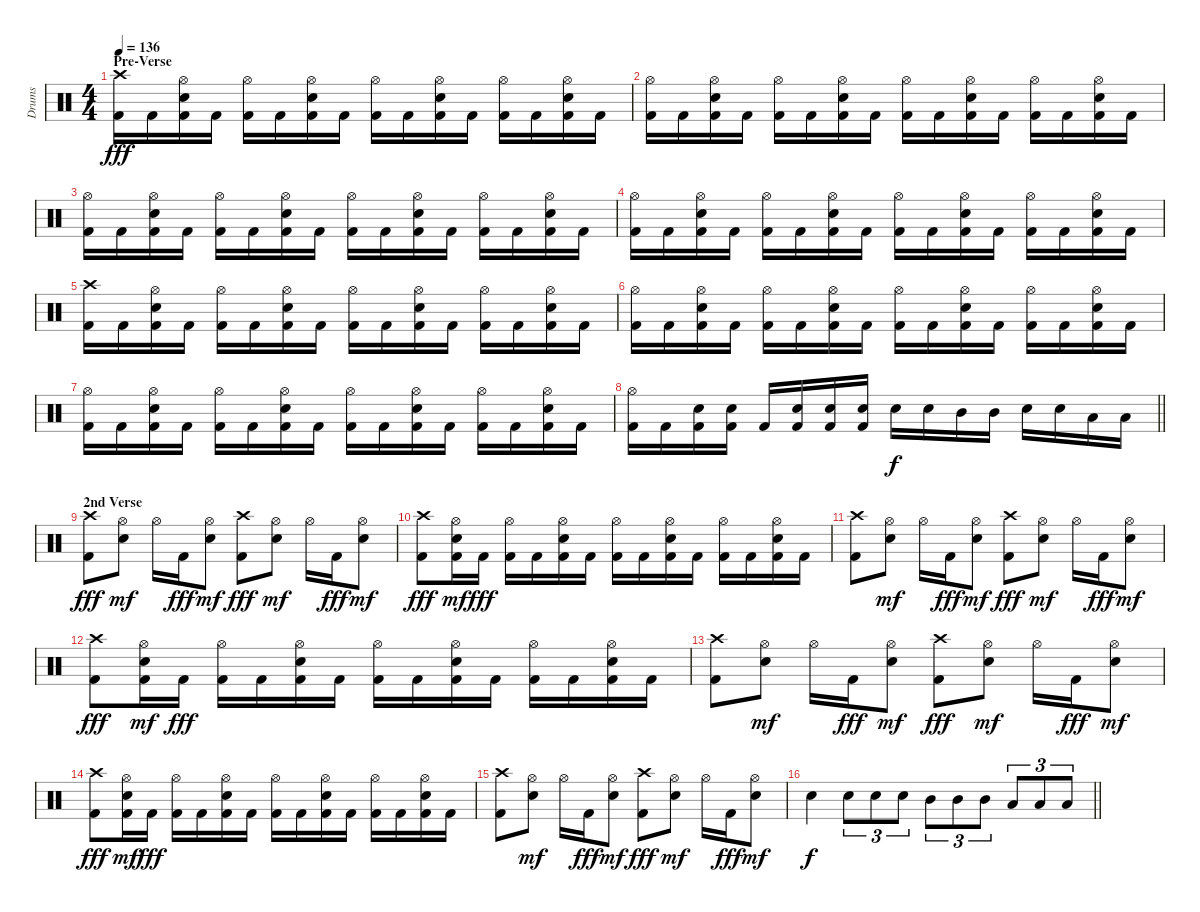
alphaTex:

\track ("Drums" "Drums") {instrument percussion}
\staff {score}
\articulation defaults
\ts (4 4)
\section ("" "Pre-Verse")
\tempo 136
\clef neutral
\ks c
("Crash high (hit)" "Kick (hit) 2").16{dy fff} "Kick (hit) 2".16 ("Hi-Hat (open)" "Electric Snare (hit)" "Kick (hit) 2").16 "Kick (hit) 2".16 ("Hi-Hat (open)" "Kick (hit) 2").16 "Kick (hit) 2".16 ("Hi-Hat (open)" "Electric Snare (hit)" "Kick (hit) 2").16 "Kick (hit) 2".16 ("Hi-Hat (open)" "Kick (hit) 2").16 "Kick (hit) 2".16 ("Hi-Hat (open)" "Electric Snare (hit)" "Kick (hit) 2").16 "Kick (hit) 2".16 ("Hi-Hat (open)" "Kick (hit) 2").16 "Kick (hit) 2".16 ("Hi-Hat (open)" "Electric Snare (hit)" "Kick (hit) 2").16 "Kick (hit) 2".16 |
("Hi-Hat (open)" "Kick (hit) 2").16 "Kick (hit) 2".16 ("Hi-Hat (open)" "Electric Snare (hit)" "Kick (hit) 2").16 "Kick (hit) 2".16 ("Hi-Hat (open)" "Kick (hit) 2").16 "Kick (hit) 2".16 ("Hi-Hat (open)" "Electric Snare (hit)" "Kick (hit) 2").16 "Kick (hit) 2".16 ("Hi-Hat (open)" "Kick (hit) 2").16 "Kick (hit) 2".16 ("Hi-Hat (open)" "Electric Snare (hit)" "Kick (hit) 2").16 "Kick (hit) 2".16 ("Hi-Hat (open)" "Kick (hit) 2").16 "Kick (hit) 2".16 ("Hi-Hat (open)" "Electric Snare (hit)" "Kick (hit) 2").16 "Kick (hit) 2".16 |
("Hi-Hat (open)" "Kick (hit) 2").16 "Kick (hit) 2".16 ("Hi-Hat (open)" "Electric Snare (hit)" "Kick (hit) 2").16 "Kick (hit) 2".16 ("Hi-Hat (open)" "Kick (hit) 2").16 "Kick (hit) 2".16 ("Hi-Hat (open)" "Electric Snare (hit)" "Kick (hit) 2").16 "Kick (hit) 2".16 ("Hi-Hat (open)" "Kick (hit) 2").16 "Kick (hit) 2".16 ("Hi-Hat (open)" "Electric Snare (hit)" "Kick (hit) 2").16 "Kick (hit) 2".16 ("Hi-Hat (open)" "Kick (hit) 2").16 "Kick (hit) 2".16 ("Hi-Hat (open)" "Electric Snare (hit)" "Kick (hit) 2").16 "Kick (hit) 2".16 |
("Hi-Hat (open)" "Kick (hit) 2").16 "Kick (hit) 2".16 ("Hi-Hat (open)" "Electric Snare (hit)" "Kick (hit) 2").16 "Kick (hit) 2".16 ("Hi-Hat (open)" "Kick (hit) 2").16 "Kick (hit) 2".16 ("Hi-Hat (open)" "Electric Snare (hit)" "Kick (hit) 2").16 "Kick (hit) 2".16 ("Hi-Hat (open)" "Kick (hit) 2").16 "Kick (hit) 2".16 ("Hi-Hat (open)" "Electric Snare (hit)" "Kick (hit) 2").16 "Kick (hit) 2".16 ("Hi-Hat (open)" "Kick (hit) 2").16 "Kick (hit) 2".16 ("Hi-Hat (open)" "Electric Snare (hit)" "Kick (hit) 2").16 "Kick (hit) 2".16 |
("Crash high (hit)" "Kick (hit) 2").16 "Kick (hit) 2".16 ("Hi-Hat (open)" "Electric Snare (hit)" "Kick (hit) 2").16 "Kick (hit) 2".16 ("Hi-Hat (open)" "Kick (hit) 2").16 "Kick (hit) 2".16 ("Hi-Hat (open)" "Electric Snare (hit)" "Kick (hit) 2").16 "Kick (hit) 2".16 ("Hi-Hat (open)" "Kick (hit) 2").16 "Kick (hit) 2".16 ("Hi-Hat (open)" "Electric Snare (hit)" "Kick (hit) 2").16 "Kick (hit) 2".16 ("Hi-Hat (open)" "Kick (hit) 2").16 "Kick (hit) 2".16 ("Hi-Hat (open)" "Electric Snare (hit)" "Kick (hit) 2").16 "Kick (hit) 2".16 |
("Hi-Hat (open)" "Kick (hit) 2").16 "Kick (hit) 2".16 ("Hi-Hat (open)" "Electric Snare (hit)" "Kick (hit) 2").16 "Kick (hit) 2".16 ("Hi-Hat (open)" "Kick (hit) 2").16 "Kick (hit) 2".16 ("Hi-Hat (open)" "Electric Snare (hit)" "Kick (hit) 2").16 "Kick (hit) 2".16 ("Hi-Hat (open)" "Kick (hit) 2").16 "Kick (hit) 2".16 ("Hi-Hat (open)" "Electric Snare (hit)" "Kick (hit) 2").16 "Kick (hit) 2".16 ("Hi-Hat (open)" "Kick (hit) 2").16 "Kick (hit) 2".16 ("Hi-Hat (open)" "Electric Snare (hit)" "Kick (hit) 2").16 "Kick (hit) 2".16 |
("Hi-Hat (open)" "Kick (hit) 2").16 "Kick (hit) 2".16 ("Hi-Hat (open)" "Electric Snare (hit)" "Kick (hit) 2").16 "Kick (hit) 2".16 ("Hi-Hat (open)" "Kick (hit) 2").16 "Kick (hit) 2".16 ("Hi-Hat (open)" "Electric Snare (hit)" "Kick (hit) 2").16 "Kick (hit) 2".16 ("Hi-Hat (open)" "Kick (hit) 2").16 "Kick (hit) 2".16 ("Hi-Hat (open)" "Electric Snare (hit)" "Kick (hit) 2").16 "Kick (hit) 2".16 ("Hi-Hat (open)" "Kick (hit) 2").16 "Kick (hit) 2".16 ("Hi-Hat (open)" "Electric Snare (hit)" "Kick (hit) 2").16 "Kick (hit) 2".16 |
\barLineRight lightlight
("Hi-Hat (open)" "Kick (hit) 2").16 "Kick (hit) 2".16 ("Electric Snare (hit)" "Kick (hit) 2").16 ("Electric Snare (hit)" "Kick (hit) 2").16 "Kick (hit) 2".16 ("Electric Snare (hit)" "Kick (hit) 2").16 ("Electric Snare (hit)" "Kick (hit) 2").16 ("Electric Snare (hit)" "Kick (hit) 2").16 "Electric Snare (hit)".16{dy f} "Electric Snare (hit)".16 "Mid Tom (hit)".16 "Mid Tom (hit)".16 "Electric Snare (hit)".16 "Electric Snare (hit)".16 "Low Tom (hit)".16 "Low Tom (hit)".16 |
\section ("" "2nd Verse")
("Crash high (hit)" "Kick (hit) 2").8{dy fff} ("Hi-Hat (open)" "Electric Snare (hit)").8{dy mf} "Hi-Hat (open)".16 "Kick (hit) 2".16{dy fff} ("Hi-Hat (open)" "Electric Snare (hit)").8{dy mf} ("Crash high (hit)" "Kick (hit) 2").8{dy fff} ("Hi-Hat (open)" "Electric Snare (hit)").8{dy mf} "Hi-Hat (open)".16 "Kick (hit) 2".16{dy fff} ("Hi-Hat (open)" "Electric Snare (hit)").8{dy mf} |
("Crash high (hit)" "Kick (hit) 2").8{dy fff} ("Hi-Hat (open)" "Electric Snare (hit)" "Kick (hit) 2").16{dy mf} "Kick (hit) 2".16{dy fff} ("Hi-Hat (open)" "Kick (hit) 2").16 "Kick (hit) 2".16 ("Hi-Hat (open)" "Electric Snare (hit)" "Kick (hit) 2").16 "Kick (hit) 2".16 ("Hi-Hat (open)" "Kick (hit) 2").16 "Kick (hit) 2".16 ("Hi-Hat (open)" "Electric Snare (hit)" "Kick (hit) 2").16 "Kick (hit) 2".16 ("Hi-Hat (open)" "Kick (hit) 2").16 "Kick (hit) 2".16 ("Hi-Hat (open)" "Electric Snare (hit)" "Kick (hit) 2").16 "Kick (hit) 2".16 |
("Crash high (hit)" "Kick (hit) 2").8 ("Hi-Hat (open)" "Electric Snare (hit)").8{dy mf} "Hi-Hat (open)".16 "Kick (hit) 2".16{dy fff} ("Hi-Hat (open)" "Electric Snare (hit)").8{dy mf} ("Crash high (hit)" "Kick (hit) 2").8{dy fff} ("Hi-Hat (open)" "Electric Snare (hit)").8{dy mf} "Hi-Hat (open)".16 "Kick (hit) 2".16{dy fff} ("Hi-Hat (open)" "Electric Snare (hit)").8{dy mf} |
("Crash high (hit)" "Kick (hit) 2").8{dy fff} ("Hi-Hat (open)" "Electric Snare (hit)" "Kick (hit) 2").16{dy mf} "Kick (hit) 2".16{dy fff} ("Hi-Hat (open)" "Kick (hit) 2").16 "Kick (hit) 2".16 ("Hi-Hat (open)" "Electric Snare (hit)" "Kick (hit) 2").16 "Kick (hit) 2".16 ("Hi-Hat (open)" "Kick (hit) 2").16 "Kick (hit) 2".16 ("Hi-Hat (open)" "Electric Snare (hit)" "Kick (hit) 2").16 "Kick (hit) 2".16 ("Hi-Hat (open)" "Kick (hit) 2").16 "Kick (hit) 2".16 ("Hi-Hat (open)" "Electric Snare (hit)" "Kick (hit) 2").16 "Kick (hit) 2".16 |
("Crash high (hit)" "Kick (hit) 2").8 ("Hi-Hat (open)" "Electric Snare (hit)").8{dy mf} "Hi-Hat (open)".16 "Kick (hit) 2".16{dy fff} ("Hi-Hat (open)" "Electric Snare (hit)").8{dy mf} ("Crash high (hit)" "Kick (hit) 2").8{dy fff} ("Hi-Hat (open)" "Electric Snare (hit)").8{dy mf} "Hi-Hat (open)".16 "Kick (hit) 2".16{dy fff} ("Hi-Hat (open)" "Electric Snare (hit)").8{dy mf} |
("Crash high (hit)" "Kick (hit) 2").8{dy fff} ("Hi-Hat (open)" "Electric Snare (hit)" "Kick (hit) 2").16{dy mf} "Kick (hit) 2".16{dy fff} ("Hi-Hat (open)" "Kick (hit) 2").16 "Kick (hit) 2".16 ("Hi-Hat (open)" "Electric Snare (hit)" "Kick (hit) 2").16 "Kick (hit) 2".16 ("Hi-Hat (open)" "Kick (hit) 2").16 "Kick (hit) 2".16 ("Hi-Hat (open)" "Electric Snare (hit)" "Kick (hit) 2").16 "Kick (hit) 2".16 ("Hi-Hat (open)" "Kick (hit) 2").16 "Kick (hit) 2".16 ("Hi-Hat (open)" "Electric Snare (hit)" "Kick (hit) 2").16 "Kick (hit) 2".16 |
("Crash high (hit)" "Kick (hit) 2").8 ("Hi-Hat (open)" "Electric Snare (hit)").8{dy mf} "Hi-Hat (open)".16 "Kick (hit) 2".16{dy fff} ("Hi-Hat (open)" "Electric Snare (hit)").8{dy mf} ("Crash high (hit)" "Kick (hit) 2").8{dy fff} ("Hi-Hat (open)" "Electric Snare (hit)").8{dy mf} "Hi-Hat (open)".16 "Kick (hit) 2".16{dy fff} ("Hi-Hat (open)" "Electric Snare (hit)").8{dy mf} |
\barLineRight lightlight "Electric Snare (hit)".4{dy f} "Electric Snare (hit)".8{tu (3 2)} "Electric Snare (hit)".8{tu (3 2)} "Electric Snare (hit)".8{tu (3 2)} "Mid Tom (hit)".8{tu (3 2)} "Mid Tom (hit)".8{tu (3 2)} "Mid Tom (hit)".8{tu (3 2)} "Low Tom (hit)".8{tu (3 2)} "Low Tom (hit)".8{tu (3 2)} "Low Tom (hit)".8{tu (3 2)}
